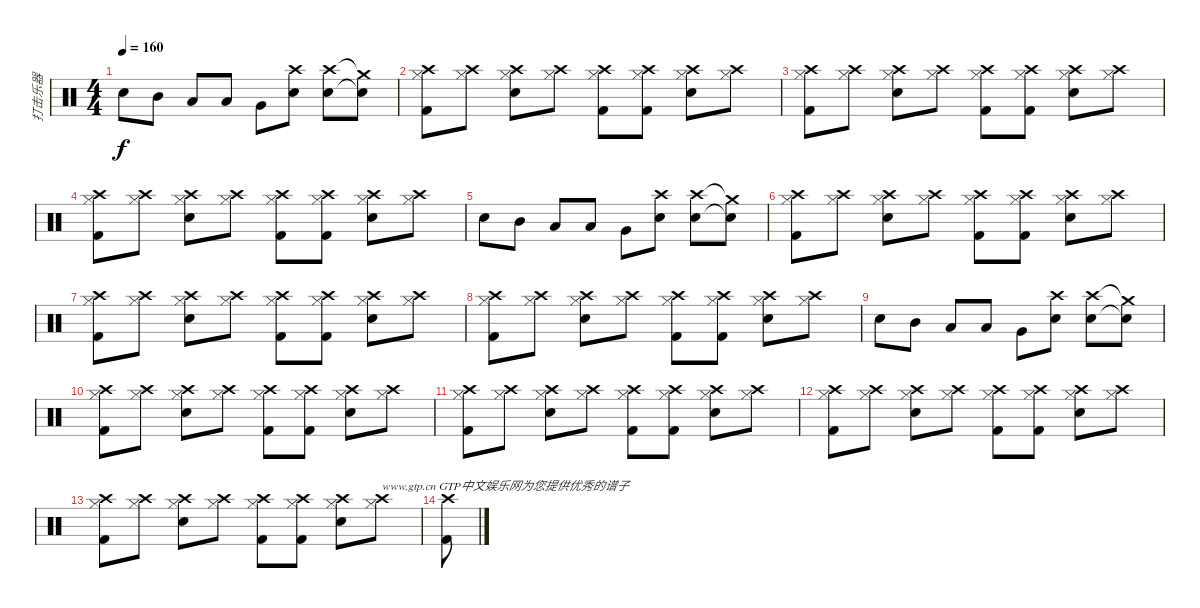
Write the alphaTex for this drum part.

\track ("打击乐器" "打击乐器") {instrument percussion}
\staff {score}
\articulation defaults
\ts (4 4)
\tempo 160
\clef neutral
\ks c "Electric Snare (hit)".8{dy f} "Mid Tom (hit)".8 "Low Tom (hit)".8 "Low Tom (hit)".8 "Very Low Tom (hit)".8
("Crash high (hit)" "Electric Snare (hit)").8 ("Crash high (hit)" "Electric Snare (hit)").8 ("Crash medium (hit)"{t} "Electric Snare (hit)"{t}).8 |
("Crash high (hit)" "Hi-Hat (closed)" "Kick (hit) 2").8 ("Crash high (hit)" "Hi-Hat (closed)").8 ("Crash high (hit)" "Hi-Hat (closed)" "Electric Snare (hit)").8 ("Crash high (hit)" "Hi-Hat (closed)").8 ("Crash high (hit)" "Hi-Hat (closed)" "Kick (hit) 2").8 ("Crash high (hit)" "Hi-Hat (closed)" "Kick (hit) 2").8 ("Crash high (hit)" "Hi-Hat (closed)" "Electric Snare (hit)").8 ("Crash high (hit)" "Hi-Hat (closed)").8 |
("Crash high (hit)" "Hi-Hat (closed)" "Kick (hit) 2").8 ("Crash high (hit)" "Hi-Hat (closed)").8 ("Crash high (hit)" "Hi-Hat (closed)" "Electric Snare (hit)").8 ("Crash high (hit)" "Hi-Hat (closed)").8 ("Crash high (hit)" "Hi-Hat (closed)" "Kick (hit) 2").8 ("Crash high (hit)" "Hi-Hat (closed)" "Kick (hit) 2").8 ("Crash high (hit)" "Hi-Hat (closed)" "Electric Snare (hit)").8 ("Crash high (hit)" "Hi-Hat (closed)").8 |
("Crash high (hit)" "Hi-Hat (closed)" "Kick (hit) 2").8 ("Crash high (hit)" "Hi-Hat (closed)").8 ("Crash high (hit)" "Hi-Hat (closed)" "Electric Snare (hit)").8 ("Crash high (hit)" "Hi-Hat (closed)").8 ("Crash high (hit)" "Hi-Hat (closed)" "Kick (hit) 2").8 ("Crash high (hit)" "Hi-Hat (closed)" "Kick (hit) 2").8 ("Crash high (hit)" "Hi-Hat (closed)" "Electric Snare (hit)").8 ("Crash high (hit)" "Hi-Hat (closed)").8 |
"Electric Snare (hit)".8 "Mid Tom (hit)".8 "Low Tom (hit)".8 "Low Tom (hit)".8 "Very Low Tom (hit)".8 ("Crash high (hit)" "Electric Snare (hit)").8 ("Crash high (hit)" "Electric Snare (hit)").8 ("Crash medium (hit)"{t} "Electric Snare (hit)"{t}).8 |
("Crash high (hit)" "Hi-Hat (closed)" "Kick (hit) 2").8 ("Crash high (hit)" "Hi-Hat (closed)").8 ("Crash high (hit)" "Hi-Hat (closed)" "Electric Snare (hit)").8 ("Crash high (hit)" "Hi-Hat (closed)").8 ("Crash high (hit)" "Hi-Hat (closed)" "Kick (hit) 2").8 ("Crash high (hit)" "Hi-Hat (closed)" "Kick (hit) 2").8 ("Crash high (hit)" "Hi-Hat (closed)" "Electric Snare (hit)").8 ("Crash high (hit)" "Hi-Hat (closed)").8 |
("Crash high (hit)" "Hi-Hat (closed)" "Kick (hit) 2").8 ("Crash high (hit)" "Hi-Hat (closed)").8 ("Crash high (hit)" "Hi-Hat (closed)" "Electric Snare (hit)").8 ("Crash high (hit)" "Hi-Hat (closed)").8 ("Crash high (hit)" "Hi-Hat (closed)" "Kick (hit) 2").8 ("Crash high (hit)" "Hi-Hat (closed)" "Kick (hit) 2").8 ("Crash high (hit)" "Hi-Hat (closed)" "Electric Snare (hit)").8 ("Crash high (hit)" "Hi-Hat (closed)").8 |
("Crash high (hit)" "Hi-Hat (closed)" "Kick (hit) 2").8 ("Crash high (hit)" "Hi-Hat (closed)").8 ("Crash high (hit)" "Hi-Hat (closed)" "Electric Snare (hit)").8 ("Crash high (hit)" "Hi-Hat (closed)").8 ("Crash high (hit)" "Hi-Hat (closed)" "Kick (hit) 2").8 ("Crash high (hit)" "Hi-Hat (closed)" "Kick (hit) 2").8 ("Crash high (hit)" "Hi-Hat (closed)" "Electric Snare (hit)").8 ("Crash high (hit)" "Hi-Hat (closed)").8 |
"Electric Snare (hit)".8 "Mid Tom (hit)".8 "Low Tom (hit)".8 "Low Tom (hit)".8 "Very Low Tom (hit)".8 ("Crash high (hit)" "Electric Snare (hit)").8 ("Crash high (hit)" "Electric Snare (hit)").8 ("Crash medium (hit)"{t} "Electric Snare (hit)"{t}).8 |
("Crash high (hit)" "Hi-Hat (closed)" "Kick (hit) 2").8 ("Crash high (hit)" "Hi-Hat (closed)").8 ("Crash high (hit)" "Hi-Hat (closed)" "Electric Snare (hit)").8 ("Crash high (hit)" "Hi-Hat (closed)").8 ("Crash high (hit)" "Hi-Hat (closed)" "Kick (hit) 2").8 ("Crash high (hit)" "Hi-Hat (closed)" "Kick (hit) 2").8 ("Crash high (hit)" "Hi-Hat (closed)" "Electric Snare (hit)").8 ("Crash high (hit)" "Hi-Hat (closed)").8 |
("Crash high (hit)" "Hi-Hat (closed)" "Kick (hit) 2").8 ("Crash high (hit)" "Hi-Hat (closed)").8 ("Crash high (hit)" "Hi-Hat (closed)" "Electric Snare (hit)").8 ("Crash high (hit)" "Hi-Hat (closed)").8 ("Crash high (hit)" "Hi-Hat (closed)" "Kick (hit) 2").8 ("Crash high (hit)" "Hi-Hat (closed)" "Kick (hit) 2").8 ("Crash high (hit)" "Hi-Hat (closed)" "Electric Snare (hit)").8 ("Crash high (hit)" "Hi-Hat (closed)").8 |
("Crash high (hit)" "Hi-Hat (closed)" "Kick (hit) 2").8 ("Crash high (hit)" "Hi-Hat (closed)").8 ("Crash high (hit)" "Hi-Hat (closed)" "Electric Snare (hit)").8 ("Crash high (hit)" "Hi-Hat (closed)").8 ("Crash high (hit)" "Hi-Hat (closed)" "Kick (hit) 2").8 ("Crash high (hit)" "Hi-Hat (closed)" "Kick (hit) 2").8 ("Crash high (hit)" "Hi-Hat (closed)" "Electric Snare (hit)").8 ("Crash high (hit)" "Hi-Hat (closed)").8 |
("Crash high (hit)" "Hi-Hat (closed)" "Kick (hit) 2").8 ("Crash high (hit)" "Hi-Hat (closed)").8 ("Crash high (hit)" "Hi-Hat (closed)" "Electric Snare (hit)").8 ("Crash high (hit)" "Hi-Hat (closed)").8 ("Crash high (hit)" "Hi-Hat (closed)" "Kick (hit) 2").8 ("Crash high (hit)" "Hi-Hat (closed)" "Kick (hit) 2").8 ("Crash high (hit)" "Hi-Hat (closed)" "Electric Snare (hit)").8 ("Crash high (hit)" "Hi-Hat (closed)").8{txt "www.gtp.cn GTP中文娱乐网为您提供优秀的谱子"} |
("Crash high (hit)" "Kick (hit) 2").8
